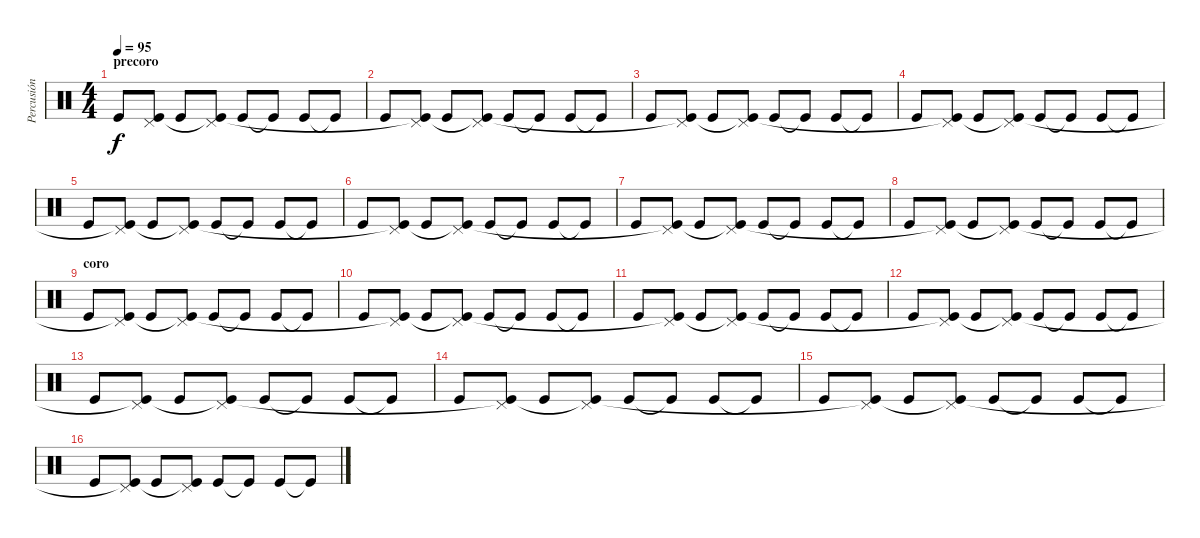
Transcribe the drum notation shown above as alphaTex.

\track ("Percusión" "Percusión") {instrument percussion}
\staff {score}
\articulation defaults
\ts (4 4)
\section ("" "precoro")
\tempo 95
\clef neutral
\ks c "Kick (hit)".8{dy f}
("Pedal Hi-Hat (hit)" "Kick (hit)"{t}).8 "Kick (hit)".8 ("Pedal Hi-Hat (hit)" "Kick (hit)"{t}).8 "Kick (hit)".8 "Kick (hit)"{t}.8 "Kick (hit)".8 "Kick (hit)"{t}.8 |
"Kick (hit)".8 ("Pedal Hi-Hat (hit)" "Kick (hit)"{t}).8 "Kick (hit)".8 ("Pedal Hi-Hat (hit)" "Kick (hit)"{t}).8 "Kick (hit)".8 "Kick (hit)"{t}.8 "Kick (hit)".8 "Kick (hit)"{t}.8 |
"Kick (hit)".8 ("Pedal Hi-Hat (hit)" "Kick (hit)"{t}).8 "Kick (hit)".8 ("Pedal Hi-Hat (hit)" "Kick (hit)"{t}).8 "Kick (hit)".8 "Kick (hit)"{t}.8 "Kick (hit)".8 "Kick (hit)"{t}.8 |
"Kick (hit)".8 ("Pedal Hi-Hat (hit)" "Kick (hit)"{t}).8 "Kick (hit)".8 ("Pedal Hi-Hat (hit)" "Kick (hit)"{t}).8 "Kick (hit)".8 "Kick (hit)"{t}.8 "Kick (hit)".8 "Kick (hit)"{t}.8 |
"Kick (hit)".8 ("Pedal Hi-Hat (hit)" "Kick (hit)"{t}).8 "Kick (hit)".8 ("Pedal Hi-Hat (hit)" "Kick (hit)"{t}).8 "Kick (hit)".8 "Kick (hit)"{t}.8 "Kick (hit)".8 "Kick (hit)"{t}.8 |
"Kick (hit)".8 ("Pedal Hi-Hat (hit)" "Kick (hit)"{t}).8 "Kick (hit)".8 ("Pedal Hi-Hat (hit)" "Kick (hit)"{t}).8 "Kick (hit)".8 "Kick (hit)"{t}.8 "Kick (hit)".8 "Kick (hit)"{t}.8 |
"Kick (hit)".8 ("Pedal Hi-Hat (hit)" "Kick (hit)"{t}).8 "Kick (hit)".8 ("Pedal Hi-Hat (hit)" "Kick (hit)"{t}).8 "Kick (hit)".8 "Kick (hit)"{t}.8 "Kick (hit)".8 "Kick (hit)"{t}.8 |
"Kick (hit)".8 ("Pedal Hi-Hat (hit)" "Kick (hit)"{t}).8 "Kick (hit)".8 ("Pedal Hi-Hat (hit)" "Kick (hit)"{t}).8 "Kick (hit)".8 "Kick (hit)"{t}.8 "Kick (hit)".8 "Kick (hit)"{t}.8 |
\section ("" "coro")
"Kick (hit)".8 ("Pedal Hi-Hat (hit)" "Kick (hit)"{t}).8 "Kick (hit)".8 ("Pedal Hi-Hat (hit)" "Kick (hit)"{t}).8 "Kick (hit)".8 "Kick (hit)"{t}.8 "Kick (hit)".8 "Kick (hit)"{t}.8 |
"Kick (hit)".8 ("Pedal Hi-Hat (hit)" "Kick (hit)"{t}).8 "Kick (hit)".8 ("Pedal Hi-Hat (hit)" "Kick (hit)"{t}).8 "Kick (hit)".8 "Kick (hit)"{t}.8 "Kick (hit)".8 "Kick (hit)"{t}.8 |
"Kick (hit)".8 ("Pedal Hi-Hat (hit)" "Kick (hit)"{t}).8 "Kick (hit)".8 ("Pedal Hi-Hat (hit)" "Kick (hit)"{t}).8 "Kick (hit)".8 "Kick (hit)"{t}.8 "Kick (hit)".8 "Kick (hit)"{t}.8 |
"Kick (hit)".8 ("Pedal Hi-Hat (hit)" "Kick (hit)"{t}).8 "Kick (hit)".8 ("Pedal Hi-Hat (hit)" "Kick (hit)"{t}).8 "Kick (hit)".8 "Kick (hit)"{t}.8 "Kick (hit)".8 "Kick (hit)"{t}.8 |
"Kick (hit)".8 ("Pedal Hi-Hat (hit)" "Kick (hit)"{t}).8 "Kick (hit)".8 ("Pedal Hi-Hat (hit)" "Kick (hit)"{t}).8 "Kick (hit)".8 "Kick (hit)"{t}.8 "Kick (hit)".8 "Kick (hit)"{t}.8 |
"Kick (hit)".8 ("Pedal Hi-Hat (hit)" "Kick (hit)"{t}).8 "Kick (hit)".8 ("Pedal Hi-Hat (hit)" "Kick (hit)"{t}).8 "Kick (hit)".8 "Kick (hit)"{t}.8 "Kick (hit)".8 "Kick (hit)"{t}.8 |
"Kick (hit)".8 ("Pedal Hi-Hat (hit)" "Kick (hit)"{t}).8 "Kick (hit)".8 ("Pedal Hi-Hat (hit)" "Kick (hit)"{t}).8 "Kick (hit)".8 "Kick (hit)"{t}.8 "Kick (hit)".8 "Kick (hit)"{t}.8 |
"Kick (hit)".8 ("Pedal Hi-Hat (hit)" "Kick (hit)"{t}).8 "Kick (hit)".8 ("Pedal Hi-Hat (hit)" "Kick (hit)"{t}).8 "Kick (hit)".8 "Kick (hit)"{t}.8 "Kick (hit)".8 "Kick (hit)"{t}.8
